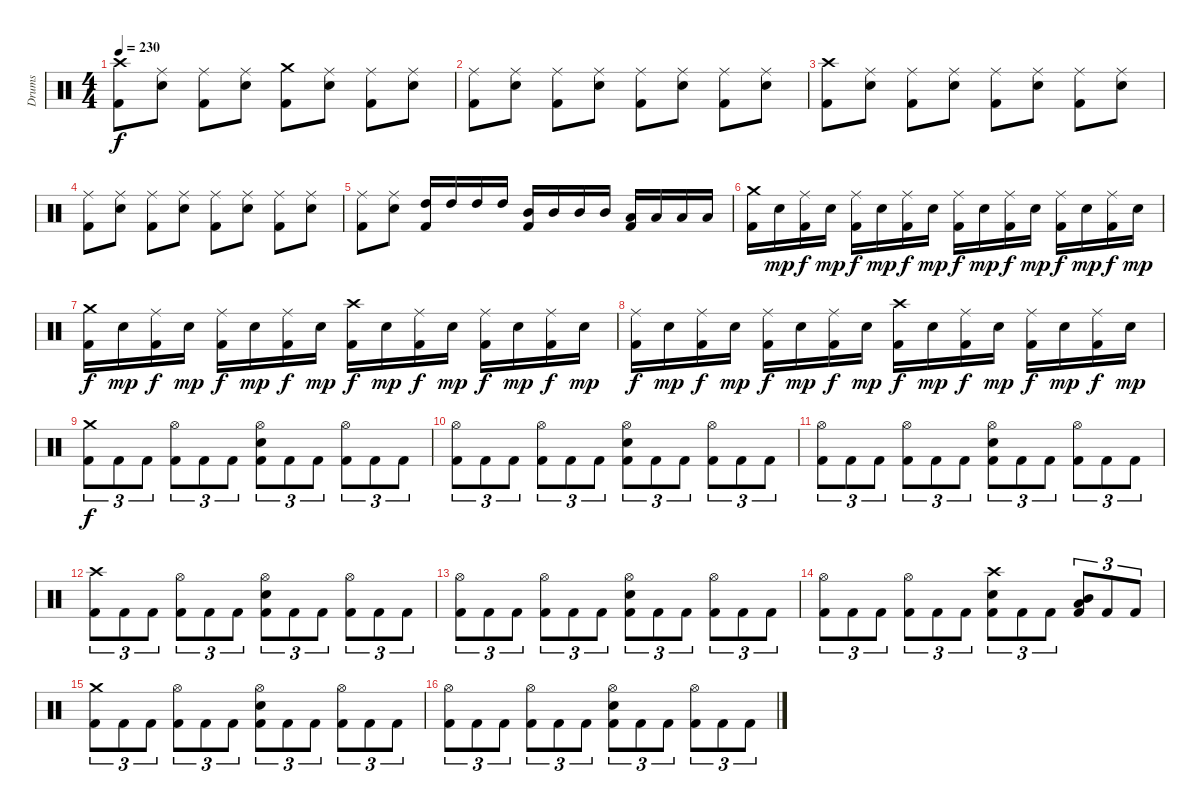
\track ("Drums" "Drums") {instrument percussion}
\staff {score}
\articulation defaults
\ts (4 4)
\tempo 230
\clef neutral
\ks c
("Crash high (hit)" "Kick (hit) 2").8{dy f} ("Ride (middle)" "Electric Snare (hit)").8 ("Ride (middle)" "Kick (hit) 2").8 ("Ride (middle)" "Electric Snare (hit)").8 ("Crash medium (hit)" "Kick (hit) 2").8 ("Ride (middle)" "Electric Snare (hit)").8 ("Ride (middle)" "Kick (hit) 2").8 ("Ride (middle)" "Electric Snare (hit)").8 |
("Ride (middle)" "Kick (hit) 2").8 ("Ride (middle)" "Electric Snare (hit)").8 ("Ride (middle)" "Kick (hit) 2").8 ("Ride (middle)" "Electric Snare (hit)").8 ("Ride (middle)" "Kick (hit) 2").8 ("Ride (middle)" "Electric Snare (hit)").8 ("Ride (middle)" "Kick (hit) 2").8 ("Ride (middle)" "Electric Snare (hit)").8 |
("Crash high (hit)" "Kick (hit) 2").8 ("Ride (middle)" "Electric Snare (hit)").8 ("Ride (middle)" "Kick (hit) 2").8 ("Ride (middle)" "Electric Snare (hit)").8 ("Ride (middle)" "Kick (hit) 2").8 ("Ride (middle)" "Electric Snare (hit)").8 ("Ride (middle)" "Kick (hit) 2").8 ("Ride (middle)" "Electric Snare (hit)").8 |
("Ride (middle)" "Kick (hit) 2").8 ("Ride (middle)" "Electric Snare (hit)").8 ("Ride (middle)" "Kick (hit) 2").8 ("Ride (middle)" "Electric Snare (hit)").8 ("Ride (middle)" "Kick (hit) 2").8 ("Ride (middle)" "Electric Snare (hit)").8 ("Ride (middle)" "Kick (hit) 2").8 ("Ride (middle)" "Electric Snare (hit)").8 |
("Ride (middle)" "Kick (hit) 2").8 ("Ride (middle)" "Electric Snare (hit)").8 ("High Tom (hit)" "Kick (hit) 2").16 "High Tom (hit)".16 "High Tom (hit)".16 "High Tom (hit)".16 ("Mid Tom (hit)" "Kick (hit) 2").16 "Mid Tom (hit)".16 "Mid Tom (hit)".16 "Mid Tom (hit)".16 ("Low Tom (hit)" "Kick (hit) 2").16 "Low Tom (hit)".16 "Low Tom (hit)".16 "Low Tom (hit)".16 |
("Crash medium (hit)" "Kick (hit) 2").16 "Electric Snare (hit)".16{dy mp} ("Ride (middle)" "Kick (hit) 2").16{dy f} "Electric Snare (hit)".16{dy mp} ("Ride (middle)" "Kick (hit) 2").16{dy f} "Electric Snare (hit)".16{dy mp} ("Ride (middle)" "Kick (hit) 2").16{dy f} "Electric Snare (hit)".16{dy mp} ("Ride (middle)" "Kick (hit) 2").16{dy f} "Electric Snare (hit)".16{dy mp} ("Ride (middle)" "Kick (hit) 2").16{dy f} "Electric Snare (hit)".16{dy mp} ("Ride (middle)" "Kick (hit) 2").16{dy f} "Electric Snare (hit)".16{dy mp} ("Ride (middle)" "Kick (hit) 2").16{dy f} "Electric Snare (hit)".16{dy mp} |
("Crash medium (hit)" "Kick (hit) 2").16{dy f} "Electric Snare (hit)".16{dy mp} ("Ride (middle)" "Kick (hit) 2").16{dy f} "Electric Snare (hit)".16{dy mp} ("Ride (middle)" "Kick (hit) 2").16{dy f} "Electric Snare (hit)".16{dy mp} ("Ride (middle)" "Kick (hit) 2").16{dy f} "Electric Snare (hit)".16{dy mp} ("Crash high (hit)" "Kick (hit) 2").16{dy f} "Electric Snare (hit)".16{dy mp} ("Ride (middle)" "Kick (hit) 2").16{dy f} "Electric Snare (hit)".16{dy mp} ("Ride (middle)" "Kick (hit) 2").16{dy f} "Electric Snare (hit)".16{dy mp} ("Ride (middle)" "Kick (hit) 2").16{dy f} "Electric Snare (hit)".16{dy mp} |
("Ride (middle)" "Kick (hit) 2").16{dy f} "Electric Snare (hit)".16{dy mp} ("Ride (middle)" "Kick (hit) 2").16{dy f} "Electric Snare (hit)".16{dy mp} ("Ride (middle)" "Kick (hit) 2").16{dy f} "Electric Snare (hit)".16{dy mp} ("Ride (middle)" "Kick (hit) 2").16{dy f} "Electric Snare (hit)".16{dy mp} ("Crash high (hit)" "Kick (hit) 2").16{dy f} "Electric Snare (hit)".16{dy mp} ("Ride (middle)" "Kick (hit) 2").16{dy f} "Electric Snare (hit)".16{dy mp} ("Ride (middle)" "Kick (hit) 2").16{dy f} "Electric Snare (hit)".16{dy mp} ("Ride (middle)" "Kick (hit) 2").16{dy f} "Electric Snare (hit)".16{dy mp} |
("Crash medium (hit)" "Kick (hit) 2").8{tu (3 2) dy f} "Kick (hit) 2".8{tu (3 2)} "Kick (hit) 2".8{tu (3 2)} ("Hi-Hat (open)" "Kick (hit) 2").8{tu (3 2)} "Kick (hit) 2".8{tu (3 2)} "Kick (hit) 2".8{tu (3 2)} ("Hi-Hat (open)" "Electric Snare (hit)" "Kick (hit) 2").8{tu (3 2)} "Kick (hit) 2".8{tu (3 2)} "Kick (hit) 2".8{tu (3 2)} ("Hi-Hat (open)" "Kick (hit) 2").8{tu (3 2)} "Kick (hit) 2".8{tu (3 2)} "Kick (hit) 2".8{tu (3 2)} |
("Hi-Hat (open)" "Kick (hit) 2").8{tu (3 2)} "Kick (hit) 2".8{tu (3 2)} "Kick (hit) 2".8{tu (3 2)} ("Hi-Hat (open)" "Kick (hit) 2").8{tu (3 2)} "Kick (hit) 2".8{tu (3 2)} "Kick (hit) 2".8{tu (3 2)} ("Hi-Hat (open)" "Electric Snare (hit)" "Kick (hit) 2").8{tu (3 2)} "Kick (hit) 2".8{tu (3 2)} "Kick (hit) 2".8{tu (3 2)} ("Hi-Hat (open)" "Kick (hit) 2").8{tu (3 2)} "Kick (hit) 2".8{tu (3 2)} "Kick (hit) 2".8{tu (3 2)} |
("Hi-Hat (open)" "Kick (hit) 2").8{tu (3 2)} "Kick (hit) 2".8{tu (3 2)} "Kick (hit) 2".8{tu (3 2)} ("Hi-Hat (open)" "Kick (hit) 2").8{tu (3 2)} "Kick (hit) 2".8{tu (3 2)} "Kick (hit) 2".8{tu (3 2)} ("Hi-Hat (open)" "Electric Snare (hit)" "Kick (hit) 2").8{tu (3 2)} "Kick (hit) 2".8{tu (3 2)} "Kick (hit) 2".8{tu (3 2)} ("Hi-Hat (open)" "Kick (hit) 2").8{tu (3 2)} "Kick (hit) 2".8{tu (3 2)} "Kick (hit) 2".8{tu (3 2)} |
("Crash high (hit)" "Kick (hit) 2").8{tu (3 2)} "Kick (hit) 2".8{tu (3 2)} "Kick (hit) 2".8{tu (3 2)} ("Hi-Hat (open)" "Kick (hit) 2").8{tu (3 2)} "Kick (hit) 2".8{tu (3 2)} "Kick (hit) 2".8{tu (3 2)} ("Hi-Hat (open)" "Electric Snare (hit)" "Kick (hit) 2").8{tu (3 2)} "Kick (hit) 2".8{tu (3 2)} "Kick (hit) 2".8{tu (3 2)} ("Hi-Hat (open)" "Kick (hit) 2").8{tu (3 2)} "Kick (hit) 2".8{tu (3 2)} "Kick (hit) 2".8{tu (3 2)} |
("Hi-Hat (open)" "Kick (hit) 2").8{tu (3 2)} "Kick (hit) 2".8{tu (3 2)} "Kick (hit) 2".8{tu (3 2)} ("Hi-Hat (open)" "Kick (hit) 2").8{tu (3 2)} "Kick (hit) 2".8{tu (3 2)} "Kick (hit) 2".8{tu (3 2)} ("Hi-Hat (open)" "Electric Snare (hit)" "Kick (hit) 2").8{tu (3 2)} "Kick (hit) 2".8{tu (3 2)} "Kick (hit) 2".8{tu (3 2)} ("Hi-Hat (open)" "Kick (hit) 2").8{tu (3 2)} "Kick (hit) 2".8{tu (3 2)} "Kick (hit) 2".8{tu (3 2)} |
("Hi-Hat (open)" "Kick (hit) 2").8{tu (3 2)} "Kick (hit) 2".8{tu (3 2)} "Kick (hit) 2".8{tu (3 2)} ("Hi-Hat (open)" "Kick (hit) 2").8{tu (3 2)} "Kick (hit) 2".8{tu (3 2)} "Kick (hit) 2".8{tu (3 2)} ("Crash high (hit)" "Electric Snare (hit)" "Kick (hit) 2").8{tu (3 2)} "Kick (hit) 2".8{tu (3 2)} "Kick (hit) 2".8{tu (3 2)} ("Mid Tom (hit)" "Low Tom (hit)" "Kick (hit) 2").8{tu (3 2)} "Kick (hit) 2".8{tu (3 2)} "Kick (hit) 2".8{tu (3 2)} |
("Crash medium (hit)" "Kick (hit) 2").8{tu (3 2)} "Kick (hit) 2".8{tu (3 2)} "Kick (hit) 2".8{tu (3 2)} ("Hi-Hat (open)" "Kick (hit) 2").8{tu (3 2)} "Kick (hit) 2".8{tu (3 2)} "Kick (hit) 2".8{tu (3 2)} ("Hi-Hat (open)" "Electric Snare (hit)" "Kick (hit) 2").8{tu (3 2)} "Kick (hit) 2".8{tu (3 2)} "Kick (hit) 2".8{tu (3 2)} ("Hi-Hat (open)" "Kick (hit) 2").8{tu (3 2)} "Kick (hit) 2".8{tu (3 2)} "Kick (hit) 2".8{tu (3 2)} |
("Hi-Hat (open)" "Kick (hit) 2").8{tu (3 2)} "Kick (hit) 2".8{tu (3 2)} "Kick (hit) 2".8{tu (3 2)} ("Hi-Hat (open)" "Kick (hit) 2").8{tu (3 2)} "Kick (hit) 2".8{tu (3 2)} "Kick (hit) 2".8{tu (3 2)} ("Hi-Hat (open)" "Electric Snare (hit)" "Kick (hit) 2").8{tu (3 2)} "Kick (hit) 2".8{tu (3 2)} "Kick (hit) 2".8{tu (3 2)} ("Hi-Hat (open)" "Kick (hit) 2").8{tu (3 2)} "Kick (hit) 2".8{tu (3 2)} "Kick (hit) 2".8{tu (3 2)}
